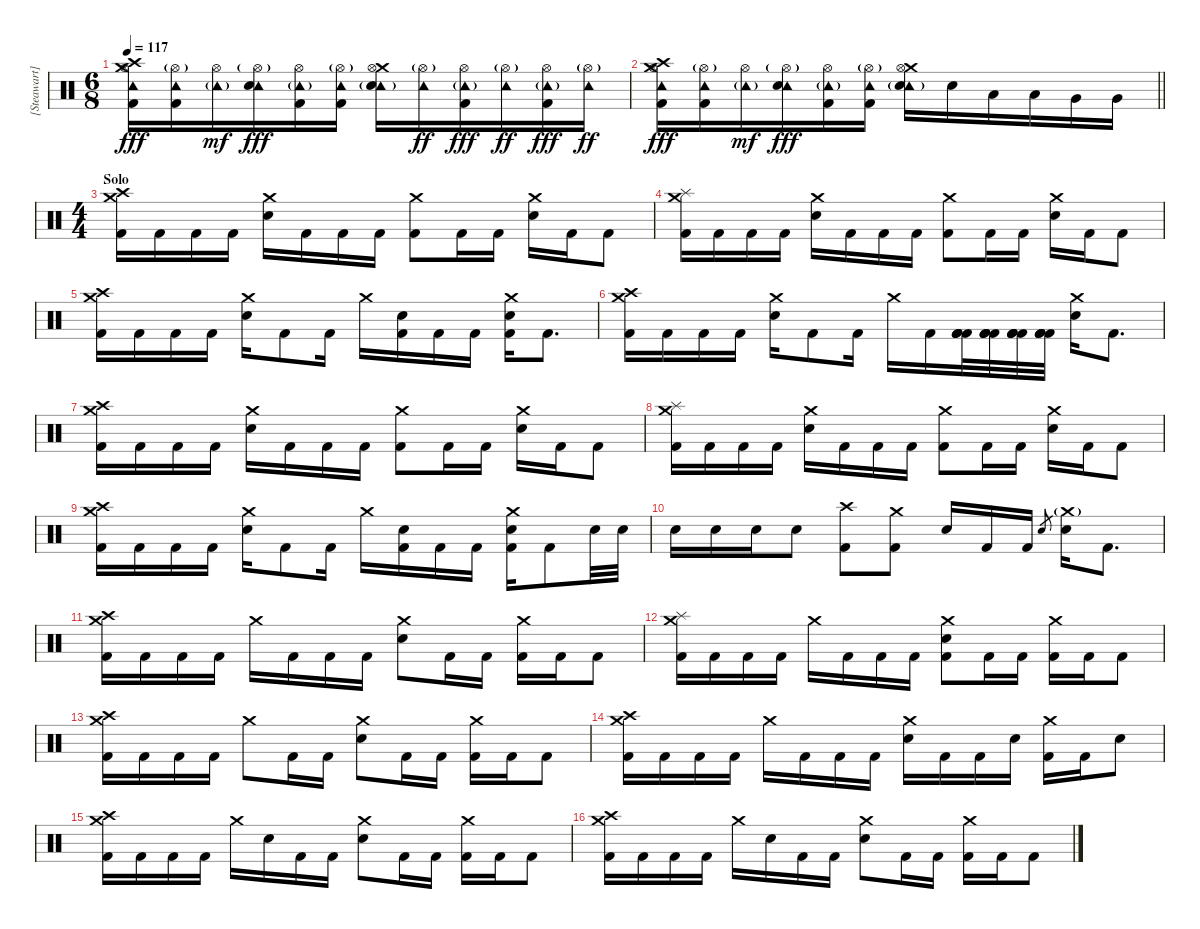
\track ("[Steawart] Drums" "[Steawart]") {instrument percussion}
\staff {score}
\articulation defaults
\ts (6 8)
\tempo 117
\clef neutral
\ks c
("Crash medium (hit)" "Hi-Hat (open)" "Crash high (hit)" "Tambourine (hit)" "Kick (hit) 2").16{dy fff} ("Hi-Hat (open)"{g} "Tambourine (hit)" "Kick (hit) 2").16 ("Hi-Hat (open)" "Tambourine (hit)"{g}).16{dy mf} ("Hi-Hat (open)"{g} "Tambourine (hit)" "Electric Snare (hit)").16{dy fff} ("Hi-Hat (open)" "Tambourine (hit)"{g} "Kick (hit) 2").16 ("Hi-Hat (open)"{g} "Tambourine (hit)" "Kick (hit) 2").16 ("Crash medium (hit)" "Hi-Hat (open)" "Tambourine (hit)"{g} "Electric Snare (hit)").16 ("Hi-Hat (open)"{g} "Tambourine (hit)").16{dy ff} ("Hi-Hat (open)" "Tambourine (hit)"{g} "Kick (hit) 2").16{dy fff} ("Hi-Hat (open)"{g} "Tambourine (hit)").16{dy ff} ("Hi-Hat (open)" "Tambourine (hit)"{g} "Kick (hit) 2").16{dy fff} ("Hi-Hat (open)"{g} "Tambourine (hit)").16{dy ff} |
\barLineRight lightlight
("Crash medium (hit)" "Hi-Hat (open)" "Crash high (hit)" "Tambourine (hit)" "Kick (hit) 2").16{dy fff} ("Hi-Hat (open)"{g} "Tambourine (hit)" "Kick (hit) 2").16 ("Hi-Hat (open)" "Tambourine (hit)"{g}).16{dy mf} ("Hi-Hat (open)"{g} "Tambourine (hit)" "Electric Snare (hit)").16{dy fff} ("Hi-Hat (open)" "Tambourine (hit)"{g} "Kick (hit) 2").16 ("Hi-Hat (open)"{g} "Tambourine (hit)" "Kick (hit) 2").16 ("Crash medium (hit)" "Hi-Hat (open)" "Tambourine (hit)"{g} "Electric Snare (hit)").16 "Electric Snare (hit)".16 "Low Tom (hit)".16 "Low Tom (hit)".16 "Very Low Tom (hit)".16 "Very Low Tom (hit)".16 |
\ts (4 4)
\section ("" "Solo")
("Crash medium (hit)" "Crash high (hit)" "Kick (hit) 2").16 "Kick (hit) 2".16 "Kick (hit) 2".16 "Kick (hit) 2".16 ("Crash medium (hit)" "Electric Snare (hit)").16 "Kick (hit) 2".16 "Kick (hit) 2".16 "Kick (hit) 2".16 ("Crash medium (hit)" "Kick (hit) 2").8 "Kick (hit) 2".16 "Kick (hit) 2".16 ("Crash medium (hit)" "Electric Snare (hit)").16 "Kick (hit) 2".16 "Kick (hit) 2".8 |
("Crash medium (hit)" "Splash (hit)" "Kick (hit) 2").16 "Kick (hit) 2".16 "Kick (hit) 2".16 "Kick (hit) 2".16 ("Crash medium (hit)" "Electric Snare (hit)").16 "Kick (hit) 2".16 "Kick (hit) 2".16 "Kick (hit) 2".16 ("Crash medium (hit)" "Kick (hit) 2").8 "Kick (hit) 2".16 "Kick (hit) 2".16 ("Crash medium (hit)" "Electric Snare (hit)").16 "Kick (hit) 2".16 "Kick (hit) 2".8 |
("Crash medium (hit)" "Crash high (hit)" "Kick (hit) 2").16 "Kick (hit) 2".16 "Kick (hit) 2".16 "Kick (hit) 2".16 ("Crash medium (hit)" "Electric Snare (hit)").16 "Kick (hit) 2".8 "Kick (hit) 2".16 "Crash medium (hit)".16 ("Electric Snare (hit)" "Kick (hit) 2").16 "Kick (hit) 2".16 "Kick (hit) 2".16 ("Crash medium (hit)" "Electric Snare (hit)" "Kick (hit) 2").16 "Kick (hit) 2".8{d} |
("Crash medium (hit)" "Crash high (hit)" "Kick (hit) 2").16 "Kick (hit) 2".16 "Kick (hit) 2".16 "Kick (hit) 2".16 ("Crash medium (hit)" "Electric Snare (hit)").16 "Kick (hit) 2".8 "Kick (hit) 2".16 "Crash medium (hit)".16 "Kick (hit) 2".16 ("Kick (hit) 2" "Kick (hit) 2" "Kick (hit) 2" "Kick (hit) 2").32 ("Kick (hit) 2" "Kick (hit) 2" "Kick (hit) 2" "Kick (hit) 2").32 ("Kick (hit) 2" "Kick (hit) 2" "Kick (hit) 2" "Kick (hit) 2").32 ("Kick (hit) 2" "Kick (hit) 2" "Kick (hit) 2" "Kick (hit) 2").32 ("Crash medium (hit)" "Electric Snare (hit)").16 "Kick (hit) 2".8{d} |
("Crash medium (hit)" "Crash high (hit)" "Kick (hit) 2").16 "Kick (hit) 2".16 "Kick (hit) 2".16 "Kick (hit) 2".16 ("Crash medium (hit)" "Electric Snare (hit)").16 "Kick (hit) 2".16 "Kick (hit) 2".16 "Kick (hit) 2".16 ("Crash medium (hit)" "Kick (hit) 2").8 "Kick (hit) 2".16 "Kick (hit) 2".16 ("Crash medium (hit)" "Electric Snare (hit)").16 "Kick (hit) 2".16 "Kick (hit) 2".8 |
("Crash medium (hit)" "Splash (hit)" "Kick (hit) 2").16 "Kick (hit) 2".16 "Kick (hit) 2".16 "Kick (hit) 2".16 ("Crash medium (hit)" "Electric Snare (hit)").16 "Kick (hit) 2".16 "Kick (hit) 2".16 "Kick (hit) 2".16 ("Crash medium (hit)" "Kick (hit) 2").8 "Kick (hit) 2".16 "Kick (hit) 2".16 ("Crash medium (hit)" "Electric Snare (hit)").16 "Kick (hit) 2".16 "Kick (hit) 2".8 |
("Crash medium (hit)" "Crash high (hit)" "Kick (hit) 2").16 "Kick (hit) 2".16 "Kick (hit) 2".16 "Kick (hit) 2".16 ("Crash medium (hit)" "Electric Snare (hit)").16 "Kick (hit) 2".8 "Kick (hit) 2".16 "Crash medium (hit)".16 ("Electric Snare (hit)" "Kick (hit) 2").16 "Kick (hit) 2".16 "Kick (hit) 2".16 ("Crash medium (hit)" "Electric Snare (hit)" "Kick (hit) 2").16 "Kick (hit) 2".8 "Electric Snare (hit)".32 "Electric Snare (hit)".32 |
"Electric Snare (hit)".16 "Electric Snare (hit)".16 "Electric Snare (hit)".16 "Electric Snare (hit)".8 ("Crash high (hit)" "Kick (hit) 2").8 ("Crash medium (hit)" "Kick (hit) 2").8 "Electric Snare (hit)".16 "Kick (hit) 2".16 "Kick (hit) 2".16 "Electric Snare (hit)".8{gr} ("Crash medium (hit)"{g} "Electric Snare (hit)").16 "Kick (hit) 2".8{d} |
("Crash medium (hit)" "Crash high (hit)" "Kick (hit) 2").16 "Kick (hit) 2".16 "Kick (hit) 2".16 "Kick (hit) 2".16 "Crash medium (hit)".16 "Kick (hit) 2".16 "Kick (hit) 2".16 "Kick (hit) 2".16 ("Crash medium (hit)" "Electric Snare (hit)").8 "Kick (hit) 2".16 "Kick (hit) 2".16 ("Crash medium (hit)" "Kick (hit) 2").16 "Kick (hit) 2".16 "Kick (hit) 2".8 |
("Crash medium (hit)" "Splash (hit)" "Kick (hit) 2").16 "Kick (hit) 2".16 "Kick (hit) 2".16 "Kick (hit) 2".16 "Crash medium (hit)".16 "Kick (hit) 2".16 "Kick (hit) 2".16 "Kick (hit) 2".16 ("Crash medium (hit)" "Electric Snare (hit)" "Kick (hit) 2").8 "Kick (hit) 2".16 "Kick (hit) 2".16 ("Crash medium (hit)" "Kick (hit) 2").16 "Kick (hit) 2".16 "Kick (hit) 2".8 |
("Crash medium (hit)" "Crash high (hit)" "Kick (hit) 2").16 "Kick (hit) 2".16 "Kick (hit) 2".16 "Kick (hit) 2".16 "Crash medium (hit)".8 "Kick (hit) 2".16 "Kick (hit) 2".16 ("Crash medium (hit)" "Electric Snare (hit)").8 "Kick (hit) 2".16 "Kick (hit) 2".16 ("Crash medium (hit)" "Kick (hit) 2").16 "Kick (hit) 2".16 "Kick (hit) 2".8 |
("Crash medium (hit)" "Crash high (hit)" "Kick (hit) 2").16 "Kick (hit) 2".16 "Kick (hit) 2".16 "Kick (hit) 2".16 "Crash medium (hit)".16 "Kick (hit) 2".16 "Kick (hit) 2".16 "Kick (hit) 2".16 ("Crash medium (hit)" "Electric Snare (hit)").16 "Kick (hit) 2".16 "Kick (hit) 2".16 "Electric Snare (hit)".16 ("Crash medium (hit)" "Kick (hit) 2").16 "Kick (hit) 2".16 "Electric Snare (hit)".8 |
("Crash medium (hit)" "Crash high (hit)" "Kick (hit) 2").16 "Kick (hit) 2".16 "Kick (hit) 2".16 "Kick (hit) 2".16 "Crash medium (hit)".16 "Electric Snare (hit)".16 "Kick (hit) 2".16 "Kick (hit) 2".16 ("Crash medium (hit)" "Electric Snare (hit)").8 "Kick (hit) 2".16 "Kick (hit) 2".16 ("Crash medium (hit)" "Kick (hit) 2").16 "Kick (hit) 2".16 "Kick (hit) 2".8 |
("Crash medium (hit)" "Crash high (hit)" "Kick (hit) 2").16 "Kick (hit) 2".16 "Kick (hit) 2".16 "Kick (hit) 2".16 "Crash medium (hit)".16 "Electric Snare (hit)".16 "Kick (hit) 2".16 "Kick (hit) 2".16 ("Crash medium (hit)" "Electric Snare (hit)").8 "Kick (hit) 2".16 "Kick (hit) 2".16 ("Crash medium (hit)" "Kick (hit) 2").16 "Kick (hit) 2".16 "Kick (hit) 2".8
